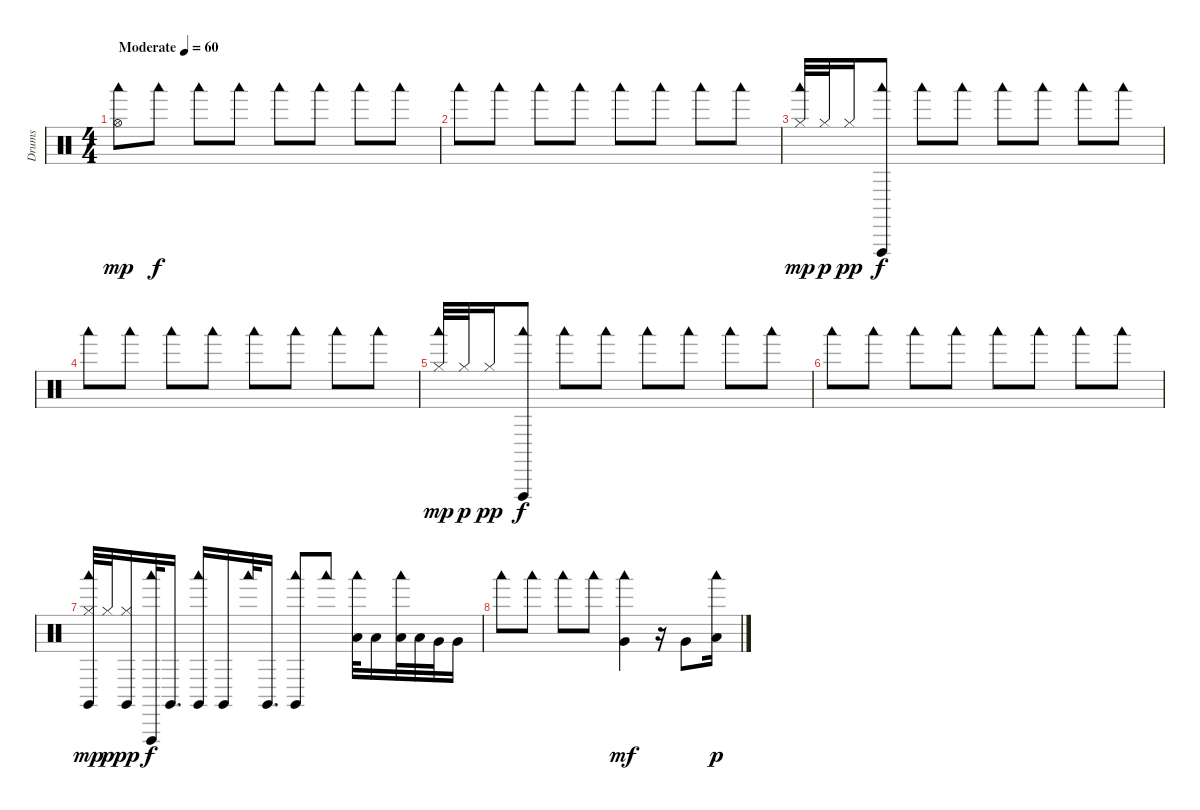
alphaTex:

\track ("Drums" "Drums") {instrument percussion}
\staff {score}
\articulation defaults
\ts (4 4)
\tempo (60 "Moderate")
\clef neutral
\ks c
("Hi-Hat (open)" "Woodblock low (hit)").8{dy mp} "Woodblock low (hit)".8{dy f} "Woodblock low (hit)".8 "Woodblock low (hit)".8 "Woodblock low (hit)".8 "Woodblock low (hit)".8 "Woodblock low (hit)".8 "Woodblock low (hit)".8 |
"Woodblock low (hit)".8 "Woodblock low (hit)".8 "Woodblock low (hit)".8 "Woodblock low (hit)".8 "Woodblock low (hit)".8 "Woodblock low (hit)".8 "Woodblock low (hit)".8 "Woodblock low (hit)".8 |
("Hi-Hat (closed)" "Woodblock low (hit)").32{dy mp} "Hi-Hat (closed)".32{dy p} "Hi-Hat (closed)".16{dy pp} ("Woodblock low (hit)" "Vibraslap (hit)").8{dy f} "Woodblock low (hit)".8 "Woodblock low (hit)".8 "Woodblock low (hit)".8 "Woodblock low (hit)".8 "Woodblock low (hit)".8 "Woodblock low (hit)".8 |
"Woodblock low (hit)".8 "Woodblock low (hit)".8 "Woodblock low (hit)".8 "Woodblock low (hit)".8 "Woodblock low (hit)".8 "Woodblock low (hit)".8 "Woodblock low (hit)".8 "Woodblock low (hit)".8 |
("Hi-Hat (closed)" "Woodblock low (hit)").32{dy mp} "Hi-Hat (closed)".32{dy p} "Hi-Hat (closed)".16{dy pp} ("Woodblock low (hit)" "Vibraslap (hit)").8{dy f} "Woodblock low (hit)".8 "Woodblock low (hit)".8 "Woodblock low (hit)".8 "Woodblock low (hit)".8 "Woodblock low (hit)".8 "Woodblock low (hit)".8 |
"Woodblock low (hit)".8 "Woodblock low (hit)".8 "Woodblock low (hit)".8 "Woodblock low (hit)".8 "Woodblock low (hit)".8 "Woodblock low (hit)".8 "Woodblock low (hit)".8 "Woodblock low (hit)".8 |
("Hi-Hat (closed)" "Woodblock low (hit)" "Claves (hit)").32{dy mp} "Hi-Hat (closed)".32{dy p} ("Hi-Hat (closed)" "Claves (hit)").16{dy pp} ("Woodblock low (hit)" "Vibraslap (hit)").32{dy f} "Claves (hit)".16{d} ("Woodblock low (hit)" "Claves (hit)").16 "Claves (hit)".16 "Woodblock low (hit)".32 "Claves (hit)".16{d} ("Woodblock low (hit)" "Claves (hit)").8 "Woodblock low (hit)".8 ("Woodblock low (hit)" "Low Tom (hit)").32 "Low Tom (hit)".16 ("Woodblock low (hit)" "Low Tom (hit)").32 "Low Tom (hit)".32 "Very Low Tom (hit)".32 "Very Low Tom (hit)".16 |
"Woodblock low (hit)".8 "Woodblock low (hit)".8 "Woodblock low (hit)".8 "Woodblock low (hit)".8 ("Woodblock low (hit)" "Very Low Tom (hit)").4{dy mf} r.16 "Very Low Tom (hit)".8 ("Woodblock low (hit)" "Low Floor Tom (hit)").16{dy p}
